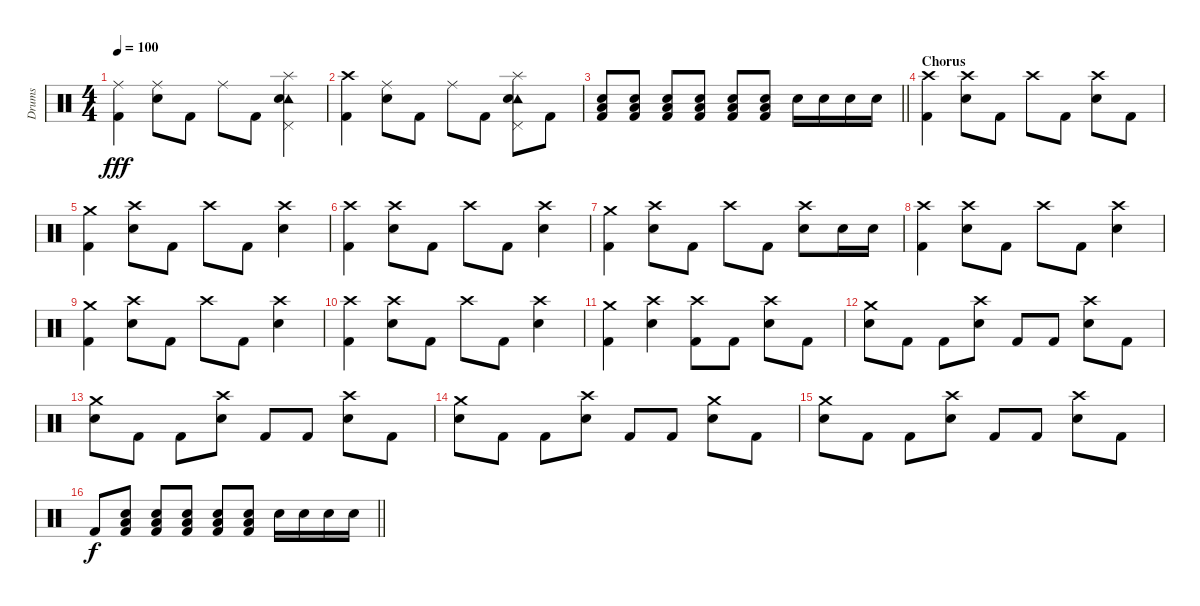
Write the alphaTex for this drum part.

\track ("Drums" "Drums") {instrument percussion}
\staff {score}
\articulation defaults
\ts (4 4)
\tempo 100
\clef neutral
\ks c
("Ride (middle)" "Kick (hit) 2").4{dy fff} ("Ride (middle)" "Snare (hit) 2").8 "Kick (hit) 2".8 "Ride (middle)".8 "Kick (hit) 2".8 ("Tambourine (hit)" "Pedal Hi-Hat (hit)" "Splash (hit)" "Snare (hit) 2").4 |
("Crash high (hit)" "Kick (hit) 2").4 ("Ride (middle)" "Snare (hit) 2").8 "Kick (hit) 2".8 "Ride (middle)".8 "Kick (hit) 2".8 ("Tambourine (hit)" "Pedal Hi-Hat (hit)" "Splash (hit)" "Snare (hit) 2").8 "Kick (hit) 2".8 |
\barLineRight lightlight
("Low Floor Tom (hit)" "Snare (hit) 2" "Kick (hit) 2").8 ("Low Floor Tom (hit)" "Snare (hit) 2" "Kick (hit) 2").8 ("Low Floor Tom (hit)" "Snare (hit) 2" "Kick (hit) 2").8 ("Low Floor Tom (hit)" "Snare (hit) 2" "Kick (hit) 2").8 ("Low Floor Tom (hit)" "Snare (hit) 2" "Kick (hit) 2").8 ("Low Floor Tom (hit)" "Snare (hit) 2" "Kick (hit) 2").8 "Snare (hit) 2".16 "Snare (hit) 2".16 "Snare (hit) 2".16 "Snare (hit) 2".16 |
\section ("" "Chorus")
("Crash high (hit)" "Kick (hit) 2").4 ("Crash high (hit)" "Snare (hit) 2").8 "Kick (hit) 2".8 "Crash high (hit)".8 "Kick (hit) 2".8 ("Crash high (hit)" "Snare (hit) 2").8 "Kick (hit) 2".8 |
("Crash medium (hit)" "Kick (hit) 2").4 ("Crash high (hit)" "Snare (hit) 2").8 "Kick (hit) 2".8 "Crash high (hit)".8 "Kick (hit) 2".8 ("Crash high (hit)" "Snare (hit) 2").4 |
("Crash high (hit)" "Kick (hit) 2").4 ("Crash high (hit)" "Snare (hit) 2").8 "Kick (hit) 2".8 "Crash high (hit)".8 "Kick (hit) 2".8 ("Crash high (hit)" "Snare (hit) 2").4 |
("Crash medium (hit)" "Kick (hit) 2").4 ("Crash high (hit)" "Snare (hit) 2").8 "Kick (hit) 2".8 "Crash high (hit)".8 "Kick (hit) 2".8 ("Crash high (hit)" "Snare (hit) 2").8 "Snare (hit) 2".16 "Snare (hit) 2".16 |
("Crash high (hit)" "Kick (hit) 2").4 ("Crash high (hit)" "Snare (hit) 2").8 "Kick (hit) 2".8 "Crash high (hit)".8 "Kick (hit) 2".8 ("Crash high (hit)" "Snare (hit) 2").4 |
("Crash medium (hit)" "Kick (hit) 2").4 ("Crash high (hit)" "Snare (hit) 2").8 "Kick (hit) 2".8 "Crash high (hit)".8 "Kick (hit) 2".8 ("Crash high (hit)" "Snare (hit) 2").4 |
("Crash high (hit)" "Kick (hit) 2").4 ("Crash high (hit)" "Snare (hit) 2").8 "Kick (hit) 2".8 "Crash high (hit)".8 "Kick (hit) 2".8 ("Crash high (hit)" "Snare (hit) 2").4 |
("Crash medium (hit)" "Kick (hit) 2").4 ("Crash high (hit)" "Snare (hit) 2").4 ("Crash high (hit)" "Kick (hit) 2").8 "Kick (hit) 2".8 ("Crash high (hit)" "Snare (hit) 2").8 "Kick (hit) 2".8 |
("Crash medium (hit)" "Snare (hit) 2").8 "Kick (hit) 2".8 "Kick (hit) 2".8 ("Crash high (hit)" "Snare (hit) 2").8 "Kick (hit) 2".8 "Kick (hit) 2".8 ("Crash high (hit)" "Snare (hit) 2").8 "Kick (hit) 2".8 |
("Crash medium (hit)" "Snare (hit) 2").8 "Kick (hit) 2".8 "Kick (hit) 2".8 ("Crash high (hit)" "Snare (hit) 2").8 "Kick (hit) 2".8 "Kick (hit) 2".8 ("Crash high (hit)" "Snare (hit) 2").8 "Kick (hit) 2".8 |
("Crash medium (hit)" "Snare (hit) 2").8 "Kick (hit) 2".8 "Kick (hit) 2".8 ("Crash high (hit)" "Snare (hit) 2").8 "Kick (hit) 2".8 "Kick (hit) 2".8 ("Crash medium (hit)" "Snare (hit) 2").8 "Kick (hit) 2".8 |
("Crash medium (hit)" "Snare (hit) 2").8 "Kick (hit) 2".8 "Kick (hit) 2".8 ("Crash high (hit)" "Snare (hit) 2").8 "Kick (hit) 2".8 "Kick (hit) 2".8 ("Crash high (hit)" "Snare (hit) 2").8 "Kick (hit) 2".8 |
\barLineRight lightlight "Kick (hit) 2".8{dy f}
("Low Tom (hit)" "Snare (hit) 2" "Kick (hit) 2").8 ("Low Tom (hit)" "Snare (hit) 2" "Kick (hit) 2").8 ("Low Tom (hit)" "Snare (hit) 2" "Kick (hit) 2").8 ("Low Tom (hit)" "Snare (hit) 2" "Kick (hit) 2").8 ("Low Tom (hit)" "Snare (hit) 2" "Kick (hit) 2").8 "Snare (hit) 2".16 "Snare (hit) 2".16 "Snare (hit) 2".16 "Snare (hit) 2".16
